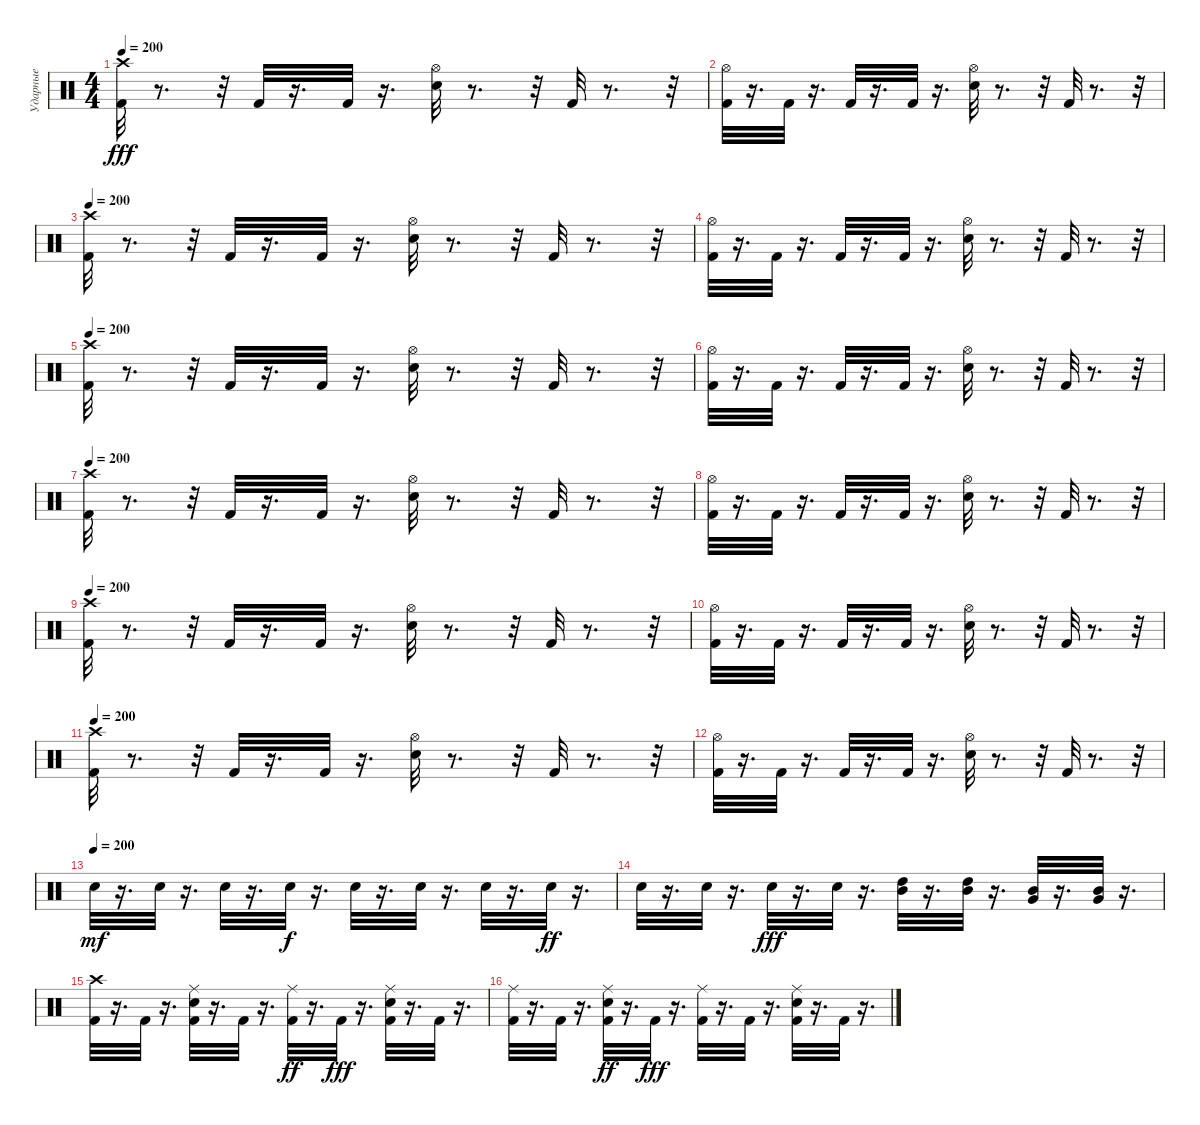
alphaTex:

\track ("Ударные" "Ударные") {instrument percussion}
\staff {score}
\articulation defaults
\ts (4 4)
\tempo 200
\clef neutral
\ks c
("Crash high (hit)" "Kick (hit) 2").32{dy fff} r.8{d} r.32 "Kick (hit) 2".32 r.16{d} "Kick (hit) 2".32 r.16{d} ("Hi-Hat (open)" "Snare (hit) 2").32 r.8{d} r.32 "Kick (hit) 2".32 r.8{d} r.32 |
("Hi-Hat (open)" "Kick (hit) 2").32 r.16{d} "Kick (hit) 2".32 r.16{d} "Kick (hit) 2".32 r.16{d} "Kick (hit) 2".32 r.16{d} ("Hi-Hat (open)" "Snare (hit) 2").32 r.8{d} r.32 "Kick (hit) 2".32 r.8{d} r.32 |
\tempo 200
("Crash high (hit)" "Kick (hit) 2").32 r.8{d} r.32 "Kick (hit) 2".32 r.16{d} "Kick (hit) 2".32 r.16{d} ("Hi-Hat (open)" "Snare (hit) 2").32 r.8{d} r.32 "Kick (hit) 2".32 r.8{d} r.32 |
("Hi-Hat (open)" "Kick (hit) 2").32 r.16{d} "Kick (hit) 2".32 r.16{d} "Kick (hit) 2".32 r.16{d} "Kick (hit) 2".32 r.16{d} ("Hi-Hat (open)" "Snare (hit) 2").32 r.8{d} r.32 "Kick (hit) 2".32 r.8{d} r.32 |
\tempo 200
("Crash high (hit)" "Kick (hit) 2").32 r.8{d} r.32 "Kick (hit) 2".32 r.16{d} "Kick (hit) 2".32 r.16{d} ("Hi-Hat (open)" "Snare (hit) 2").32 r.8{d} r.32 "Kick (hit) 2".32 r.8{d} r.32 |
("Hi-Hat (open)" "Kick (hit) 2").32 r.16{d} "Kick (hit) 2".32 r.16{d} "Kick (hit) 2".32 r.16{d} "Kick (hit) 2".32 r.16{d} ("Hi-Hat (open)" "Snare (hit) 2").32 r.8{d} r.32 "Kick (hit) 2".32 r.8{d} r.32 |
\tempo 200
("Crash high (hit)" "Kick (hit) 2").32 r.8{d} r.32 "Kick (hit) 2".32 r.16{d} "Kick (hit) 2".32 r.16{d} ("Hi-Hat (open)" "Snare (hit) 2").32 r.8{d} r.32 "Kick (hit) 2".32 r.8{d} r.32 |
("Hi-Hat (open)" "Kick (hit) 2").32 r.16{d} "Kick (hit) 2".32 r.16{d} "Kick (hit) 2".32 r.16{d} "Kick (hit) 2".32 r.16{d} ("Hi-Hat (open)" "Snare (hit) 2").32 r.8{d} r.32 "Kick (hit) 2".32 r.8{d} r.32 |
\tempo 200
("Crash high (hit)" "Kick (hit) 2").32 r.8{d} r.32 "Kick (hit) 2".32 r.16{d} "Kick (hit) 2".32 r.16{d} ("Hi-Hat (open)" "Snare (hit) 2").32 r.8{d} r.32 "Kick (hit) 2".32 r.8{d} r.32 |
("Hi-Hat (open)" "Kick (hit) 2").32 r.16{d} "Kick (hit) 2".32 r.16{d} "Kick (hit) 2".32 r.16{d} "Kick (hit) 2".32 r.16{d} ("Hi-Hat (open)" "Snare (hit) 2").32 r.8{d} r.32 "Kick (hit) 2".32 r.8{d} r.32 |
\tempo 200
("Crash high (hit)" "Kick (hit) 2").32 r.8{d} r.32 "Kick (hit) 2".32 r.16{d} "Kick (hit) 2".32 r.16{d} ("Hi-Hat (open)" "Snare (hit) 2").32 r.8{d} r.32 "Kick (hit) 2".32 r.8{d} r.32 |
("Hi-Hat (open)" "Kick (hit) 2").32 r.16{d} "Kick (hit) 2".32 r.16{d} "Kick (hit) 2".32 r.16{d} "Kick (hit) 2".32 r.16{d} ("Hi-Hat (open)" "Snare (hit) 2").32 r.8{d} r.32 "Kick (hit) 2".32 r.8{d} r.32 |
\tempo (200)
"Snare (hit) 2".32{dy mf} r.16{d} "Snare (hit) 2".32 r.16{d} "Snare (hit) 2".32 r.16{d} "Snare (hit) 2".32{dy f} r.16{d} "Snare (hit) 2".32 r.16{d} "Snare (hit) 2".32 r.16{d} "Snare (hit) 2".32 r.16{d} "Snare (hit) 2".32{dy ff} r.16{d} |
"Snare (hit) 2".32 r.16{d} "Snare (hit) 2".32 r.16{d} "Snare (hit) 2".32{dy fff} r.16{d} "Snare (hit) 2".32 r.16{d} ("Mid Tom (hit)" "High Tom (hit)").32 r.16{d} ("Mid Tom (hit)" "High Tom (hit)").32 r.16{d} ("Very Low Tom (hit)" "Mid Tom (hit)").32 r.16{d} ("Very Low Tom (hit)" "Mid Tom (hit)").32 r.16{d} |
("Crash high (hit)" "Kick (hit) 2").32 r.16{d} "Kick (hit) 2".32 r.16{d} ("Kick (hit) 2" "Ride (middle)" "Snare (hit) 2").32 r.16{d} "Kick (hit) 2".32 r.16{d} ("Kick (hit) 2" "Ride (middle)").32{dy ff} r.16{d} "Kick (hit) 2".32{dy fff} r.16{d} ("Snare (hit) 2" "Ride (middle)" "Kick (hit) 2").32 r.16{d} "Kick (hit) 2".32 r.16{d} |
("Ride (middle)" "Kick (hit) 2").32 r.16{d} "Kick (hit) 2".32 r.16{d} ("Snare (hit) 2" "Kick (hit) 2" "Ride (middle)").32{dy ff} r.16{d} "Kick (hit) 2".32{dy fff} r.16{d} ("Ride (middle)" "Kick (hit) 2").32 r.16{d} "Kick (hit) 2".32 r.16{d} ("Snare (hit) 2" "Ride (middle)" "Kick (hit) 2").32 r.16{d} "Kick (hit) 2".32 r.16{d}
